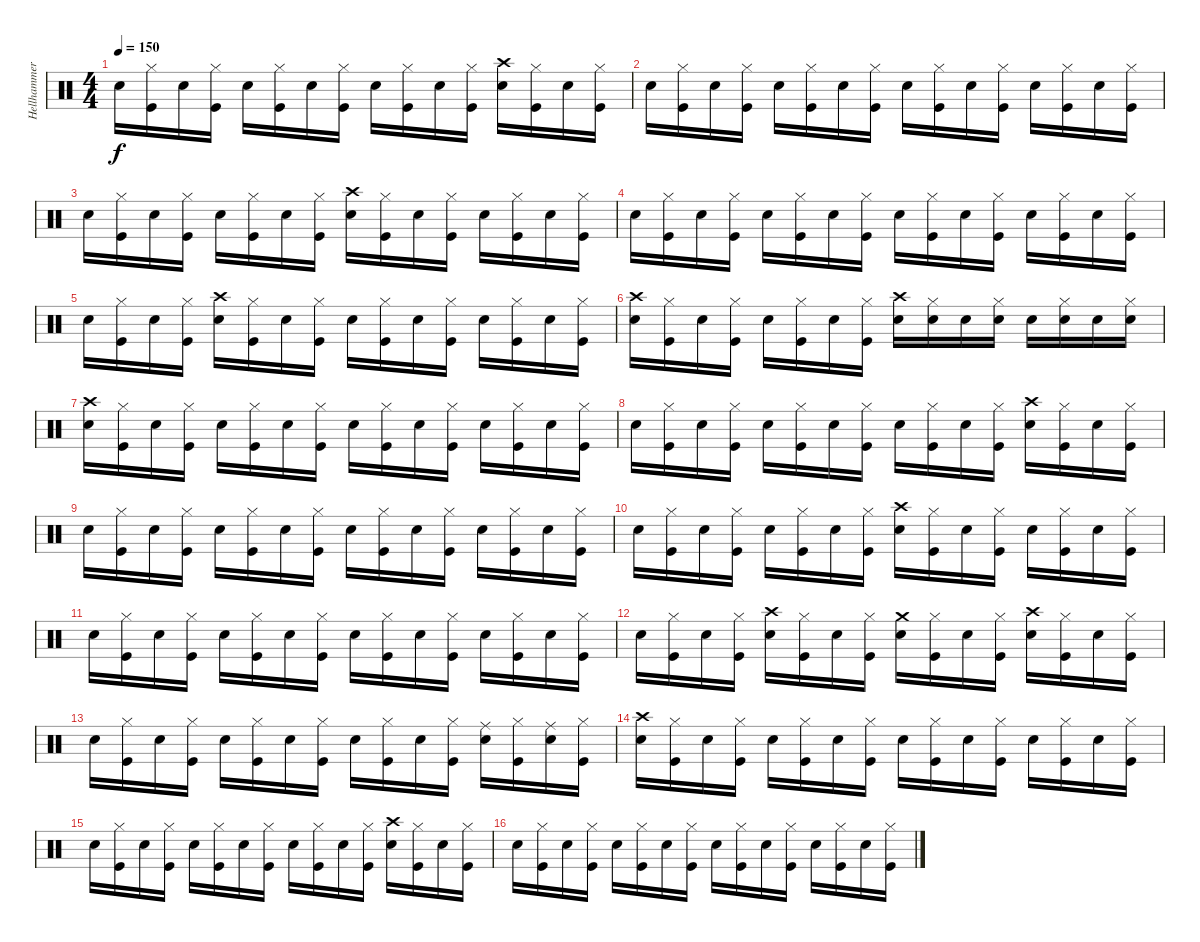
\track ("Hellhammer" "Hellhammer") {instrument percussion}
\staff {score}
\articulation defaults
\ts (4 4)
\tempo 150
\clef neutral
\ks c "Snare (hit) 2".16{dy f}
("Kick (hit)" "Hi-Hat (closed)").16 "Snare (hit) 2".16 ("Kick (hit)" "Hi-Hat (closed)").16 "Snare (hit) 2".16 ("Kick (hit)" "Hi-Hat (closed)").16 "Snare (hit) 2".16 ("Kick (hit)" "Hi-Hat (closed)").16 "Snare (hit) 2".16 ("Kick (hit)" "Hi-Hat (closed)").16 "Snare (hit) 2".16 ("Kick (hit)" "Hi-Hat (closed)").16 ("Snare (hit) 2" "Crash high (hit)").16 ("Kick (hit)" "Hi-Hat (closed)").16 "Snare (hit) 2".16 ("Kick (hit)" "Hi-Hat (closed)").16 |
"Snare (hit) 2".16 ("Kick (hit)" "Hi-Hat (closed)").16 "Snare (hit) 2".16 ("Kick (hit)" "Hi-Hat (closed)").16 "Snare (hit) 2".16 ("Kick (hit)" "Hi-Hat (closed)").16 "Snare (hit) 2".16 ("Kick (hit)" "Hi-Hat (closed)").16 "Snare (hit) 2".16 ("Kick (hit)" "Hi-Hat (closed)").16 "Snare (hit) 2".16 ("Kick (hit)" "Hi-Hat (closed)").16 "Snare (hit) 2".16 ("Kick (hit)" "Hi-Hat (closed)").16 "Snare (hit) 2".16 ("Kick (hit)" "Hi-Hat (closed)").16 |
"Snare (hit) 2".16 ("Kick (hit)" "Hi-Hat (closed)").16 "Snare (hit) 2".16 ("Kick (hit)" "Hi-Hat (closed)").16 "Snare (hit) 2".16 ("Kick (hit)" "Hi-Hat (closed)").16 "Snare (hit) 2".16 ("Kick (hit)" "Hi-Hat (closed)").16 ("Snare (hit) 2" "Crash high (hit)").16 ("Kick (hit)" "Hi-Hat (closed)").16 "Snare (hit) 2".16 ("Kick (hit)" "Hi-Hat (closed)").16 "Snare (hit) 2".16 ("Kick (hit)" "Hi-Hat (closed)").16 "Snare (hit) 2".16 ("Kick (hit)" "Hi-Hat (closed)").16 |
"Snare (hit) 2".16 ("Kick (hit)" "Hi-Hat (closed)").16 "Snare (hit) 2".16 ("Kick (hit)" "Hi-Hat (closed)").16 "Snare (hit) 2".16 ("Kick (hit)" "Hi-Hat (closed)").16 "Snare (hit) 2".16 ("Kick (hit)" "Hi-Hat (closed)").16 "Snare (hit) 2".16 ("Kick (hit)" "Hi-Hat (closed)").16 "Snare (hit) 2".16 ("Kick (hit)" "Hi-Hat (closed)").16 "Snare (hit) 2".16 ("Kick (hit)" "Hi-Hat (closed)").16 "Snare (hit) 2".16 ("Kick (hit)" "Hi-Hat (closed)").16 |
"Snare (hit) 2".16 ("Kick (hit)" "Hi-Hat (closed)").16 "Snare (hit) 2".16 ("Kick (hit)" "Hi-Hat (closed)").16 ("Snare (hit) 2" "Crash high (hit)").16 ("Kick (hit)" "Hi-Hat (closed)").16 "Snare (hit) 2".16 ("Kick (hit)" "Hi-Hat (closed)").16 "Snare (hit) 2".16 ("Kick (hit)" "Hi-Hat (closed)").16 "Snare (hit) 2".16 ("Kick (hit)" "Hi-Hat (closed)").16 "Snare (hit) 2".16 ("Kick (hit)" "Hi-Hat (closed)").16 "Snare (hit) 2".16 ("Kick (hit)" "Hi-Hat (closed)").16 |
("Snare (hit) 2" "Crash high (hit)").16 ("Kick (hit)" "Hi-Hat (closed)").16 "Snare (hit) 2".16 ("Kick (hit)" "Hi-Hat (closed)").16 "Snare (hit) 2".16 ("Kick (hit)" "Hi-Hat (closed)").16 "Snare (hit) 2".16 ("Kick (hit)" "Hi-Hat (closed)").16 ("Snare (hit) 2" "Crash high (hit)").16 ("Snare (hit) 2" "Hi-Hat (closed)").16 "Snare (hit) 2".16 ("Snare (hit) 2" "Hi-Hat (closed)").16 "Snare (hit) 2".16 ("Snare (hit) 2" "Hi-Hat (closed)").16 "Snare (hit) 2".16 ("Snare (hit) 2" "Hi-Hat (closed)").16 |
("Snare (hit) 2" "Crash high (hit)").16 ("Kick (hit)" "Hi-Hat (closed)").16 "Snare (hit) 2".16 ("Kick (hit)" "Hi-Hat (closed)").16 "Snare (hit) 2".16 ("Kick (hit)" "Hi-Hat (closed)").16 "Snare (hit) 2".16 ("Kick (hit)" "Hi-Hat (closed)").16 "Snare (hit) 2".16 ("Kick (hit)" "Hi-Hat (closed)").16 "Snare (hit) 2".16 ("Kick (hit)" "Hi-Hat (closed)").16 "Snare (hit) 2".16 ("Kick (hit)" "Hi-Hat (closed)").16 "Snare (hit) 2".16 ("Kick (hit)" "Hi-Hat (closed)").16 |
"Snare (hit) 2".16 ("Kick (hit)" "Hi-Hat (closed)").16 "Snare (hit) 2".16 ("Kick (hit)" "Hi-Hat (closed)").16 "Snare (hit) 2".16 ("Kick (hit)" "Hi-Hat (closed)").16 "Snare (hit) 2".16 ("Kick (hit)" "Hi-Hat (closed)").16 "Snare (hit) 2".16 ("Kick (hit)" "Hi-Hat (closed)").16 "Snare (hit) 2".16 ("Kick (hit)" "Hi-Hat (closed)").16 ("Snare (hit) 2" "Crash high (hit)").16 ("Kick (hit)" "Hi-Hat (closed)").16 "Snare (hit) 2".16 ("Kick (hit)" "Hi-Hat (closed)").16 |
"Snare (hit) 2".16 ("Kick (hit)" "Hi-Hat (closed)").16 "Snare (hit) 2".16 ("Kick (hit)" "Hi-Hat (closed)").16 "Snare (hit) 2".16 ("Kick (hit)" "Hi-Hat (closed)").16 "Snare (hit) 2".16 ("Kick (hit)" "Hi-Hat (closed)").16 "Snare (hit) 2".16 ("Kick (hit)" "Hi-Hat (closed)").16 "Snare (hit) 2".16 ("Kick (hit)" "Hi-Hat (closed)").16 "Snare (hit) 2".16 ("Kick (hit)" "Hi-Hat (closed)").16 "Snare (hit) 2".16 ("Kick (hit)" "Hi-Hat (closed)").16 |
"Snare (hit) 2".16 ("Kick (hit)" "Hi-Hat (closed)").16 "Snare (hit) 2".16 ("Kick (hit)" "Hi-Hat (closed)").16 "Snare (hit) 2".16 ("Kick (hit)" "Hi-Hat (closed)").16 "Snare (hit) 2".16 ("Kick (hit)" "Hi-Hat (closed)").16 ("Snare (hit) 2" "Crash high (hit)").16 ("Kick (hit)" "Hi-Hat (closed)").16 "Snare (hit) 2".16 ("Kick (hit)" "Hi-Hat (closed)").16 "Snare (hit) 2".16 ("Kick (hit)" "Hi-Hat (closed)").16 "Snare (hit) 2".16 ("Kick (hit)" "Hi-Hat (closed)").16 |
"Snare (hit) 2".16 ("Kick (hit)" "Hi-Hat (closed)").16 "Snare (hit) 2".16 ("Kick (hit)" "Hi-Hat (closed)").16 "Snare (hit) 2".16 ("Kick (hit)" "Hi-Hat (closed)").16 "Snare (hit) 2".16 ("Kick (hit)" "Hi-Hat (closed)").16 "Snare (hit) 2".16 ("Kick (hit)" "Hi-Hat (closed)").16 "Snare (hit) 2".16 ("Kick (hit)" "Hi-Hat (closed)").16 "Snare (hit) 2".16 ("Kick (hit)" "Hi-Hat (closed)").16 "Snare (hit) 2".16 ("Kick (hit)" "Hi-Hat (closed)").16 |
"Snare (hit) 2".16 ("Kick (hit)" "Hi-Hat (closed)").16 "Snare (hit) 2".16 ("Kick (hit)" "Hi-Hat (closed)").16 ("Snare (hit) 2" "Crash high (hit)").16 ("Kick (hit)" "Hi-Hat (closed)").16 "Snare (hit) 2".16 ("Kick (hit)" "Hi-Hat (closed)").16 ("Snare (hit) 2" "Crash medium (hit)").16 ("Kick (hit)" "Hi-Hat (closed)").16 "Snare (hit) 2".16 ("Kick (hit)" "Hi-Hat (closed)").16 ("Snare (hit) 2" "Crash high (hit)").16 ("Kick (hit)" "Hi-Hat (closed)").16 "Snare (hit) 2".16 ("Kick (hit)" "Hi-Hat (closed)").16 |
"Snare (hit) 2".16 ("Kick (hit)" "Hi-Hat (closed)").16 "Snare (hit) 2".16 ("Kick (hit)" "Hi-Hat (closed)").16 "Snare (hit) 2".16 ("Kick (hit)" "Hi-Hat (closed)").16 "Snare (hit) 2".16 ("Kick (hit)" "Hi-Hat (closed)").16 "Snare (hit) 2".16 ("Kick (hit)" "Hi-Hat (closed)").16 "Snare (hit) 2".16 ("Kick (hit)" "Hi-Hat (closed)").16 ("Snare (hit) 2" "Ride (middle)").16 ("Kick (hit)" "Hi-Hat (closed)").16 ("Snare (hit) 2" "Ride (middle)").16 ("Kick (hit)" "Hi-Hat (closed)").16 |
("Snare (hit) 2" "Crash high (hit)").16 ("Kick (hit)" "Hi-Hat (closed)").16 "Snare (hit) 2".16 ("Kick (hit)" "Hi-Hat (closed)").16 "Snare (hit) 2".16 ("Kick (hit)" "Hi-Hat (closed)").16 "Snare (hit) 2".16 ("Kick (hit)" "Hi-Hat (closed)").16 "Snare (hit) 2".16 ("Kick (hit)" "Hi-Hat (closed)").16 "Snare (hit) 2".16 ("Kick (hit)" "Hi-Hat (closed)").16 "Snare (hit) 2".16 ("Kick (hit)" "Hi-Hat (closed)").16 "Snare (hit) 2".16 ("Kick (hit)" "Hi-Hat (closed)").16 |
"Snare (hit) 2".16 ("Kick (hit)" "Hi-Hat (closed)").16 "Snare (hit) 2".16 ("Kick (hit)" "Hi-Hat (closed)").16 "Snare (hit) 2".16 ("Kick (hit)" "Hi-Hat (closed)").16 "Snare (hit) 2".16 ("Kick (hit)" "Hi-Hat (closed)").16 "Snare (hit) 2".16 ("Kick (hit)" "Hi-Hat (closed)").16 "Snare (hit) 2".16 ("Kick (hit)" "Hi-Hat (closed)").16 ("Snare (hit) 2" "Crash high (hit)").16 ("Kick (hit)" "Hi-Hat (closed)").16 "Snare (hit) 2".16 ("Kick (hit)" "Hi-Hat (closed)").16 |
"Snare (hit) 2".16 ("Kick (hit)" "Hi-Hat (closed)").16 "Snare (hit) 2".16 ("Kick (hit)" "Hi-Hat (closed)").16 "Snare (hit) 2".16 ("Kick (hit)" "Hi-Hat (closed)").16 "Snare (hit) 2".16 ("Kick (hit)" "Hi-Hat (closed)").16 "Snare (hit) 2".16 ("Kick (hit)" "Hi-Hat (closed)").16 "Snare (hit) 2".16 ("Kick (hit)" "Hi-Hat (closed)").16 "Snare (hit) 2".16 ("Kick (hit)" "Hi-Hat (closed)").16 "Snare (hit) 2".16 ("Kick (hit)" "Hi-Hat (closed)").16
